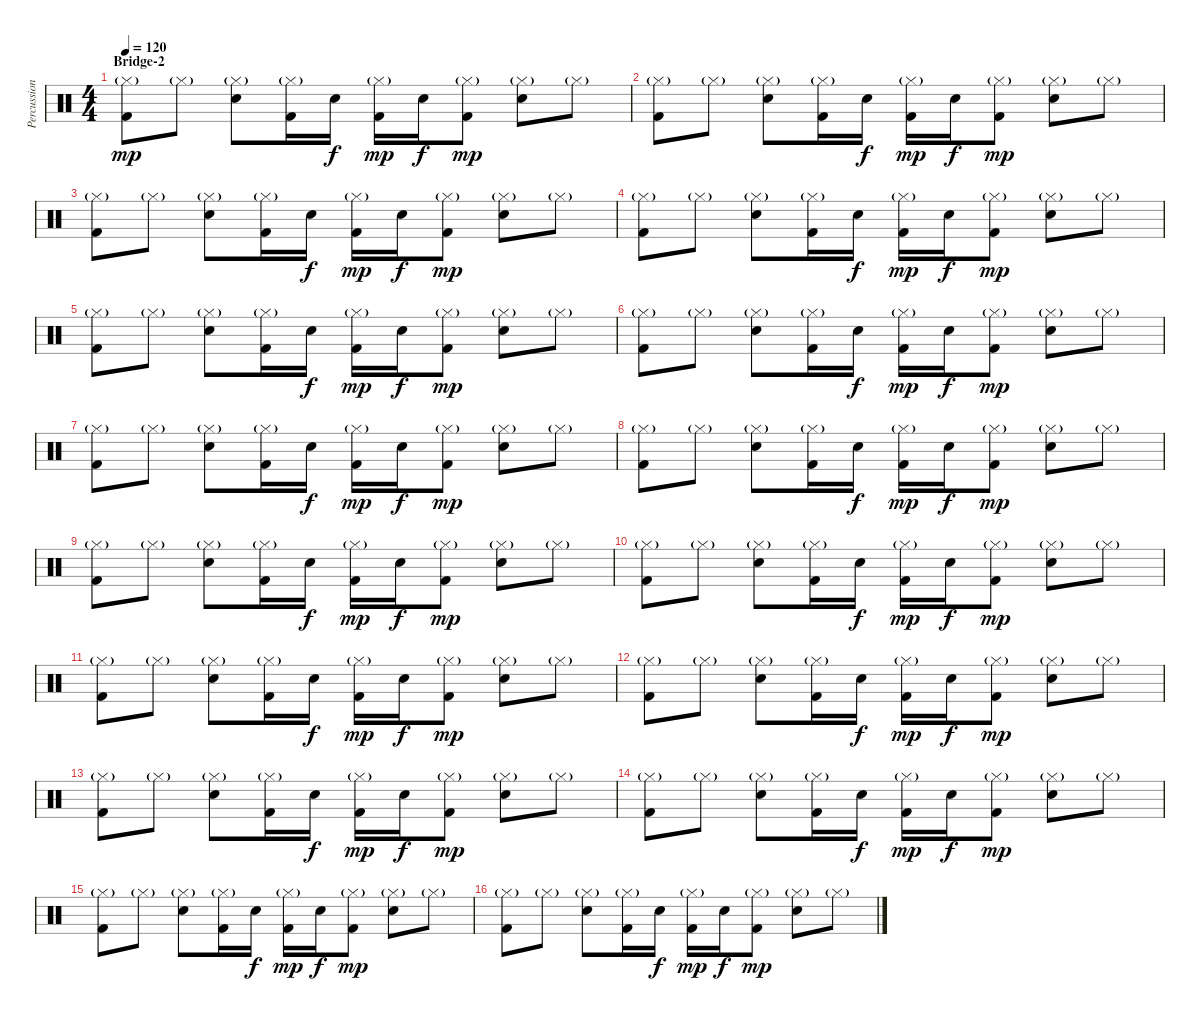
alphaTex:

\track ("Percussions" "Percussion") {instrument percussion}
\staff {score}
\articulation defaults
\ts (4 4)
\section ("" "Bridge-2")
\tempo 120
\clef neutral
\ks c
("Hi-Hat (closed)"{g} "Kick (hit) 2").8{dy mp} "Hi-Hat (closed)"{g}.8 ("Hi-Hat (closed)"{g} "Snare (hit) 2").8 ("Hi-Hat (closed)"{g} "Kick (hit) 2").16 "Snare (hit) 2".16{dy f} ("Hi-Hat (closed)"{g} "Kick (hit) 2").16{dy mp} "Snare (hit) 2".16{dy f} ("Hi-Hat (closed)"{g} "Kick (hit) 2").8{dy mp} ("Hi-Hat (closed)"{g} "Snare (hit) 2").8 "Hi-Hat (closed)"{g}.8 |
("Hi-Hat (closed)"{g} "Kick (hit) 2").8 "Hi-Hat (closed)"{g}.8 ("Hi-Hat (closed)"{g} "Snare (hit) 2").8 ("Hi-Hat (closed)"{g} "Kick (hit) 2").16 "Snare (hit) 2".16{dy f} ("Hi-Hat (closed)"{g} "Kick (hit) 2").16{dy mp} "Snare (hit) 2".16{dy f} ("Hi-Hat (closed)"{g} "Kick (hit) 2").8{dy mp} ("Hi-Hat (closed)"{g} "Snare (hit) 2").8 "Hi-Hat (closed)"{g}.8 |
("Hi-Hat (closed)"{g} "Kick (hit) 2").8 "Hi-Hat (closed)"{g}.8 ("Hi-Hat (closed)"{g} "Snare (hit) 2").8 ("Hi-Hat (closed)"{g} "Kick (hit) 2").16 "Snare (hit) 2".16{dy f} ("Hi-Hat (closed)"{g} "Kick (hit) 2").16{dy mp} "Snare (hit) 2".16{dy f} ("Hi-Hat (closed)"{g} "Kick (hit) 2").8{dy mp} ("Hi-Hat (closed)"{g} "Snare (hit) 2").8 "Hi-Hat (closed)"{g}.8 |
("Hi-Hat (closed)"{g} "Kick (hit) 2").8 "Hi-Hat (closed)"{g}.8 ("Hi-Hat (closed)"{g} "Snare (hit) 2").8 ("Hi-Hat (closed)"{g} "Kick (hit) 2").16 "Snare (hit) 2".16{dy f} ("Hi-Hat (closed)"{g} "Kick (hit) 2").16{dy mp} "Snare (hit) 2".16{dy f} ("Hi-Hat (closed)"{g} "Kick (hit) 2").8{dy mp} ("Hi-Hat (closed)"{g} "Snare (hit) 2").8 "Hi-Hat (closed)"{g}.8 |
("Hi-Hat (closed)"{g} "Kick (hit) 2").8 "Hi-Hat (closed)"{g}.8 ("Hi-Hat (closed)"{g} "Snare (hit) 2").8 ("Hi-Hat (closed)"{g} "Kick (hit) 2").16 "Snare (hit) 2".16{dy f} ("Hi-Hat (closed)"{g} "Kick (hit) 2").16{dy mp} "Snare (hit) 2".16{dy f} ("Hi-Hat (closed)"{g} "Kick (hit) 2").8{dy mp} ("Hi-Hat (closed)"{g} "Snare (hit) 2").8 "Hi-Hat (closed)"{g}.8 |
("Hi-Hat (closed)"{g} "Kick (hit) 2").8 "Hi-Hat (closed)"{g}.8 ("Hi-Hat (closed)"{g} "Snare (hit) 2").8 ("Hi-Hat (closed)"{g} "Kick (hit) 2").16 "Snare (hit) 2".16{dy f} ("Hi-Hat (closed)"{g} "Kick (hit) 2").16{dy mp} "Snare (hit) 2".16{dy f} ("Hi-Hat (closed)"{g} "Kick (hit) 2").8{dy mp} ("Hi-Hat (closed)"{g} "Snare (hit) 2").8 "Hi-Hat (closed)"{g}.8 |
("Hi-Hat (closed)"{g} "Kick (hit) 2").8 "Hi-Hat (closed)"{g}.8 ("Hi-Hat (closed)"{g} "Snare (hit) 2").8 ("Hi-Hat (closed)"{g} "Kick (hit) 2").16 "Snare (hit) 2".16{dy f} ("Hi-Hat (closed)"{g} "Kick (hit) 2").16{dy mp} "Snare (hit) 2".16{dy f} ("Hi-Hat (closed)"{g} "Kick (hit) 2").8{dy mp} ("Hi-Hat (closed)"{g} "Snare (hit) 2").8 "Hi-Hat (closed)"{g}.8 |
("Hi-Hat (closed)"{g} "Kick (hit) 2").8 "Hi-Hat (closed)"{g}.8 ("Hi-Hat (closed)"{g} "Snare (hit) 2").8 ("Hi-Hat (closed)"{g} "Kick (hit) 2").16 "Snare (hit) 2".16{dy f} ("Hi-Hat (closed)"{g} "Kick (hit) 2").16{dy mp} "Snare (hit) 2".16{dy f} ("Hi-Hat (closed)"{g} "Kick (hit) 2").8{dy mp} ("Hi-Hat (closed)"{g} "Snare (hit) 2").8 "Hi-Hat (closed)"{g}.8 |
("Hi-Hat (closed)"{g} "Kick (hit) 2").8 "Hi-Hat (closed)"{g}.8 ("Hi-Hat (closed)"{g} "Snare (hit) 2").8 ("Hi-Hat (closed)"{g} "Kick (hit) 2").16 "Snare (hit) 2".16{dy f} ("Hi-Hat (closed)"{g} "Kick (hit) 2").16{dy mp} "Snare (hit) 2".16{dy f} ("Hi-Hat (closed)"{g} "Kick (hit) 2").8{dy mp} ("Hi-Hat (closed)"{g} "Snare (hit) 2").8 "Hi-Hat (closed)"{g}.8 |
("Hi-Hat (closed)"{g} "Kick (hit) 2").8 "Hi-Hat (closed)"{g}.8 ("Hi-Hat (closed)"{g} "Snare (hit) 2").8 ("Hi-Hat (closed)"{g} "Kick (hit) 2").16 "Snare (hit) 2".16{dy f} ("Hi-Hat (closed)"{g} "Kick (hit) 2").16{dy mp} "Snare (hit) 2".16{dy f} ("Hi-Hat (closed)"{g} "Kick (hit) 2").8{dy mp} ("Hi-Hat (closed)"{g} "Snare (hit) 2").8 "Hi-Hat (closed)"{g}.8 |
("Hi-Hat (closed)"{g} "Kick (hit) 2").8 "Hi-Hat (closed)"{g}.8 ("Hi-Hat (closed)"{g} "Snare (hit) 2").8 ("Hi-Hat (closed)"{g} "Kick (hit) 2").16 "Snare (hit) 2".16{dy f} ("Hi-Hat (closed)"{g} "Kick (hit) 2").16{dy mp} "Snare (hit) 2".16{dy f} ("Hi-Hat (closed)"{g} "Kick (hit) 2").8{dy mp} ("Hi-Hat (closed)"{g} "Snare (hit) 2").8 "Hi-Hat (closed)"{g}.8 |
("Hi-Hat (closed)"{g} "Kick (hit) 2").8 "Hi-Hat (closed)"{g}.8 ("Hi-Hat (closed)"{g} "Snare (hit) 2").8 ("Hi-Hat (closed)"{g} "Kick (hit) 2").16 "Snare (hit) 2".16{dy f} ("Hi-Hat (closed)"{g} "Kick (hit) 2").16{dy mp} "Snare (hit) 2".16{dy f} ("Hi-Hat (closed)"{g} "Kick (hit) 2").8{dy mp} ("Hi-Hat (closed)"{g} "Snare (hit) 2").8 "Hi-Hat (closed)"{g}.8 |
("Hi-Hat (closed)"{g} "Kick (hit) 2").8 "Hi-Hat (closed)"{g}.8 ("Hi-Hat (closed)"{g} "Snare (hit) 2").8 ("Hi-Hat (closed)"{g} "Kick (hit) 2").16 "Snare (hit) 2".16{dy f} ("Hi-Hat (closed)"{g} "Kick (hit) 2").16{dy mp} "Snare (hit) 2".16{dy f} ("Hi-Hat (closed)"{g} "Kick (hit) 2").8{dy mp} ("Hi-Hat (closed)"{g} "Snare (hit) 2").8 "Hi-Hat (closed)"{g}.8 |
("Hi-Hat (closed)"{g} "Kick (hit) 2").8 "Hi-Hat (closed)"{g}.8 ("Hi-Hat (closed)"{g} "Snare (hit) 2").8 ("Hi-Hat (closed)"{g} "Kick (hit) 2").16 "Snare (hit) 2".16{dy f} ("Hi-Hat (closed)"{g} "Kick (hit) 2").16{dy mp} "Snare (hit) 2".16{dy f} ("Hi-Hat (closed)"{g} "Kick (hit) 2").8{dy mp} ("Hi-Hat (closed)"{g} "Snare (hit) 2").8 "Hi-Hat (closed)"{g}.8 |
("Hi-Hat (closed)"{g} "Kick (hit) 2").8 "Hi-Hat (closed)"{g}.8 ("Hi-Hat (closed)"{g} "Snare (hit) 2").8 ("Hi-Hat (closed)"{g} "Kick (hit) 2").16 "Snare (hit) 2".16{dy f} ("Hi-Hat (closed)"{g} "Kick (hit) 2").16{dy mp} "Snare (hit) 2".16{dy f} ("Hi-Hat (closed)"{g} "Kick (hit) 2").8{dy mp} ("Hi-Hat (closed)"{g} "Snare (hit) 2").8 "Hi-Hat (closed)"{g}.8 |
("Hi-Hat (closed)"{g} "Kick (hit) 2").8 "Hi-Hat (closed)"{g}.8 ("Hi-Hat (closed)"{g} "Snare (hit) 2").8 ("Hi-Hat (closed)"{g} "Kick (hit) 2").16 "Snare (hit) 2".16{dy f} ("Hi-Hat (closed)"{g} "Kick (hit) 2").16{dy mp} "Snare (hit) 2".16{dy f} ("Hi-Hat (closed)"{g} "Kick (hit) 2").8{dy mp} ("Hi-Hat (closed)"{g} "Snare (hit) 2").8 "Hi-Hat (closed)"{g}.8
